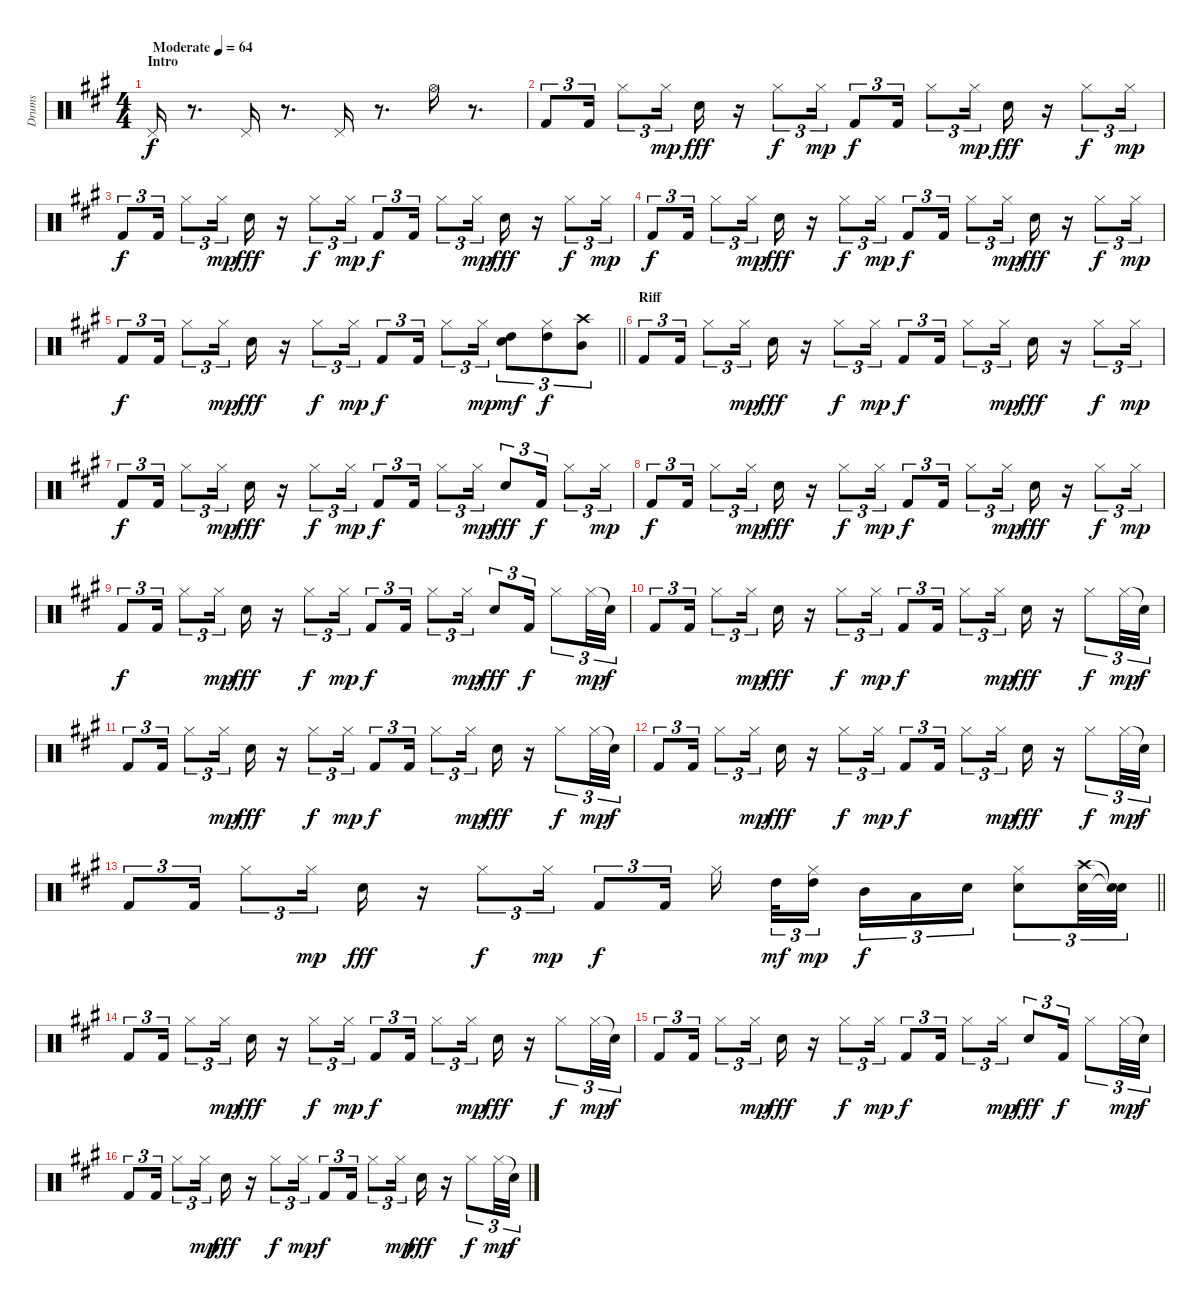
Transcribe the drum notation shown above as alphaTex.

\track ("Drums          " "Drums     ") {instrument percussion}
\staff {score}
\articulation defaults
\ts (4 4)
\section ("" "Intro")
\tempo (64 "Moderate")
\clef neutral
\ks f#minor "Pedal Hi-Hat (hit)".16{dy f}
r.8{d} "Pedal Hi-Hat (hit)".16 r.8{d} "Pedal Hi-Hat (hit)".16 r.8{d} "Hi-Hat (open)".16 r.8{d} |
"Kick (hit) 2".8{tu (3 2)} "Kick (hit) 2".16{tu (3 2)} "Hi-Hat (closed)".8{tu (3 2)} "Hi-Hat (closed)".16{tu (3 2) dy mp} "Snare (hit) 2".16{dy fff} r.16 "Hi-Hat (closed)".8{tu (3 2) dy f} "Hi-Hat (closed)".16{tu (3 2) dy mp} "Kick (hit) 2".8{tu (3 2) dy f} "Kick (hit) 2".16{tu (3 2)} "Hi-Hat (closed)".8{tu (3 2)} "Hi-Hat (closed)".16{tu (3 2) dy mp} "Snare (hit) 2".16{dy fff} r.16 "Hi-Hat (closed)".8{tu (3 2) dy f} "Hi-Hat (closed)".16{tu (3 2) dy mp} |
"Kick (hit) 2".8{tu (3 2) dy f} "Kick (hit) 2".16{tu (3 2)} "Hi-Hat (closed)".8{tu (3 2)} "Hi-Hat (closed)".16{tu (3 2) dy mp} "Snare (hit) 2".16{dy fff} r.16 "Hi-Hat (closed)".8{tu (3 2) dy f} "Hi-Hat (closed)".16{tu (3 2) dy mp} "Kick (hit) 2".8{tu (3 2) dy f} "Kick (hit) 2".16{tu (3 2)} "Hi-Hat (closed)".8{tu (3 2)} "Hi-Hat (closed)".16{tu (3 2) dy mp} "Snare (hit) 2".16{dy fff} r.16 "Hi-Hat (closed)".8{tu (3 2) dy f} "Hi-Hat (closed)".16{tu (3 2) dy mp} |
"Kick (hit) 2".8{tu (3 2) dy f} "Kick (hit) 2".16{tu (3 2)} "Hi-Hat (closed)".8{tu (3 2)} "Hi-Hat (closed)".16{tu (3 2) dy mp} "Snare (hit) 2".16{dy fff} r.16 "Hi-Hat (closed)".8{tu (3 2) dy f} "Hi-Hat (closed)".16{tu (3 2) dy mp} "Kick (hit) 2".8{tu (3 2) dy f} "Kick (hit) 2".16{tu (3 2)} "Hi-Hat (closed)".8{tu (3 2)} "Hi-Hat (closed)".16{tu (3 2) dy mp} "Snare (hit) 2".16{dy fff} r.16 "Hi-Hat (closed)".8{tu (3 2) dy f} "Hi-Hat (closed)".16{tu (3 2) dy mp} |
\barLineRight lightlight "Kick (hit) 2".8{tu (3 2) dy f} "Kick (hit) 2".16{tu (3 2)} "Hi-Hat (closed)".8{tu (3 2)} "Hi-Hat (closed)".16{tu (3 2) dy mp} "Snare (hit) 2".16{dy fff}
r.16 "Hi-Hat (closed)".8{tu (3 2) dy f} "Hi-Hat (closed)".16{tu (3 2) dy mp} "Kick (hit) 2".8{tu (3 2) dy f} "Kick (hit) 2".16{tu (3 2)} "Hi-Hat (closed)".8{tu (3 2)} "Hi-Hat (closed)".16{tu (3 2) dy mp} ("Snare (hit) 2" "High Tom (hit)").8{tu (3 2) dy mf} ("Hi-Hat (closed)" "High Tom (hit)").8{tu (3 2) dy f} ("Crash high (hit)" "Mid Tom (hit)").8{tu (3 2)} |
\section ("" "Riff")
"Kick (hit) 2".8{tu (3 2)} "Kick (hit) 2".16{tu (3 2)} "Hi-Hat (closed)".8{tu (3 2)} "Hi-Hat (closed)".16{tu (3 2) dy mp} "Snare (hit) 2".16{dy fff} r.16 "Hi-Hat (closed)".8{tu (3 2) dy f} "Hi-Hat (closed)".16{tu (3 2) dy mp} "Kick (hit) 2".8{tu (3 2) dy f} "Kick (hit) 2".16{tu (3 2)} "Hi-Hat (closed)".8{tu (3 2)} "Hi-Hat (closed)".16{tu (3 2) dy mp} "Snare (hit) 2".16{dy fff} r.16 "Hi-Hat (closed)".8{tu (3 2) dy f} "Hi-Hat (closed)".16{tu (3 2) dy mp} |
"Kick (hit) 2".8{tu (3 2) dy f} "Kick (hit) 2".16{tu (3 2)} "Hi-Hat (closed)".8{tu (3 2)} "Hi-Hat (closed)".16{tu (3 2) dy mp} "Snare (hit) 2".16{dy fff} r.16 "Hi-Hat (closed)".8{tu (3 2) dy f} "Hi-Hat (closed)".16{tu (3 2) dy mp} "Kick (hit) 2".8{tu (3 2) dy f} "Kick (hit) 2".16{tu (3 2)} "Hi-Hat (closed)".8{tu (3 2)} "Hi-Hat (closed)".16{tu (3 2) dy mp} "Snare (hit) 2".8{tu (3 2) dy fff} "Kick (hit) 2".16{tu (3 2) dy f} "Hi-Hat (closed)".8{tu (3 2)} "Hi-Hat (closed)".16{tu (3 2) dy mp} |
"Kick (hit) 2".8{tu (3 2) dy f} "Kick (hit) 2".16{tu (3 2)} "Hi-Hat (closed)".8{tu (3 2)} "Hi-Hat (closed)".16{tu (3 2) dy mp} "Snare (hit) 2".16{dy fff} r.16 "Hi-Hat (closed)".8{tu (3 2) dy f} "Hi-Hat (closed)".16{tu (3 2) dy mp} "Kick (hit) 2".8{tu (3 2) dy f} "Kick (hit) 2".16{tu (3 2)} "Hi-Hat (closed)".8{tu (3 2)} "Hi-Hat (closed)".16{tu (3 2) dy mp} "Snare (hit) 2".16{dy fff} r.16 "Hi-Hat (closed)".8{tu (3 2) dy f} "Hi-Hat (closed)".16{tu (3 2) dy mp} |
"Kick (hit) 2".8{tu (3 2) dy f} "Kick (hit) 2".16{tu (3 2)} "Hi-Hat (closed)".8{tu (3 2)} "Hi-Hat (closed)".16{tu (3 2) dy mp} "Snare (hit) 2".16{dy fff} r.16 "Hi-Hat (closed)".8{tu (3 2) dy f} "Hi-Hat (closed)".16{tu (3 2) dy mp} "Kick (hit) 2".8{tu (3 2) dy f} "Kick (hit) 2".16{tu (3 2)} "Hi-Hat (closed)".8{tu (3 2)} "Hi-Hat (closed)".16{tu (3 2) dy mp} "Snare (hit) 2".8{tu (3 2) dy fff} "Kick (hit) 2".16{tu (3 2) dy f} "Hi-Hat (closed)".8{tu (3 2)} "Hi-Hat (closed)".32{tu (3 2) dy mp} "Snare (hit)"{t}.32{tu (3 2) dy f} |
"Kick (hit) 2".8{tu (3 2)} "Kick (hit) 2".16{tu (3 2)} "Hi-Hat (closed)".8{tu (3 2)} "Hi-Hat (closed)".16{tu (3 2) dy mp} "Snare (hit) 2".16{dy fff} r.16 "Hi-Hat (closed)".8{tu (3 2) dy f} "Hi-Hat (closed)".16{tu (3 2) dy mp} "Kick (hit) 2".8{tu (3 2) dy f} "Kick (hit) 2".16{tu (3 2)} "Hi-Hat (closed)".8{tu (3 2)} "Hi-Hat (closed)".16{tu (3 2) dy mp} "Snare (hit) 2".16{dy fff} r.16 "Hi-Hat (closed)".8{tu (3 2) dy f} "Hi-Hat (closed)".32{tu (3 2) dy mp} "Snare (hit)"{t}.32{tu (3 2) dy f} |
"Kick (hit) 2".8{tu (3 2)} "Kick (hit) 2".16{tu (3 2)} "Hi-Hat (closed)".8{tu (3 2)} "Hi-Hat (closed)".16{tu (3 2) dy mp} "Snare (hit) 2".16{dy fff} r.16 "Hi-Hat (closed)".8{tu (3 2) dy f} "Hi-Hat (closed)".16{tu (3 2) dy mp} "Kick (hit) 2".8{tu (3 2) dy f} "Kick (hit) 2".16{tu (3 2)} "Hi-Hat (closed)".8{tu (3 2)} "Hi-Hat (closed)".16{tu (3 2) dy mp} "Snare (hit) 2".16{dy fff} r.16 "Hi-Hat (closed)".8{tu (3 2) dy f} "Hi-Hat (closed)".32{tu (3 2) dy mp} "Snare (hit)"{t}.32{tu (3 2) dy f} |
"Kick (hit) 2".8{tu (3 2)} "Kick (hit) 2".16{tu (3 2)} "Hi-Hat (closed)".8{tu (3 2)} "Hi-Hat (closed)".16{tu (3 2) dy mp} "Snare (hit) 2".16{dy fff} r.16 "Hi-Hat (closed)".8{tu (3 2) dy f} "Hi-Hat (closed)".16{tu (3 2) dy mp} "Kick (hit) 2".8{tu (3 2) dy f} "Kick (hit) 2".16{tu (3 2)} "Hi-Hat (closed)".8{tu (3 2)} "Hi-Hat (closed)".16{tu (3 2) dy mp} "Snare (hit) 2".16{dy fff} r.16 "Hi-Hat (closed)".8{tu (3 2) dy f} "Hi-Hat (closed)".32{tu (3 2) dy mp} "Snare (hit)"{t}.32{tu (3 2) dy f} |
\barLineRight lightlight "Kick (hit) 2".8{tu (3 2)} "Kick (hit) 2".16{tu (3 2)} "Hi-Hat (closed)".8{tu (3 2)} "Hi-Hat (closed)".16{tu (3 2) dy mp} "Snare (hit) 2".16{dy fff}
r.16 "Hi-Hat (closed)".8{tu (3 2) dy f} "Hi-Hat (closed)".16{tu (3 2) dy mp} "Kick (hit) 2".8{tu (3 2) dy f} "Kick (hit) 2".16{tu (3 2) beam splitsecondary} "Hi-Hat (closed)".16{beam splitsecondary} "High Tom (hit)".32{tu (3 2) dy mf} ("Hi-Hat (closed)" "High Tom (hit)").16{tu (3 2) dy mp} "Mid Tom (hit)".16{tu (3 2) dy f} "Low Tom (hit)".16{tu (3 2)} "Snare (hit) 2".16{tu (3 2)} ("Hi-Hat (closed)" "Snare (hit) 2").8{tu (3 2)} ("Snare (hit) 2" "Crash high (hit)").32{tu (3 2)} ("Snare (hit)"{t} "Snare (hit)"{t}).32{tu (3 2)} |
"Kick (hit) 2".8{tu (3 2)} "Kick (hit) 2".16{tu (3 2)} "Hi-Hat (closed)".8{tu (3 2)} "Hi-Hat (closed)".16{tu (3 2) dy mp} "Snare (hit) 2".16{dy fff} r.16 "Hi-Hat (closed)".8{tu (3 2) dy f} "Hi-Hat (closed)".16{tu (3 2) dy mp} "Kick (hit) 2".8{tu (3 2) dy f} "Kick (hit) 2".16{tu (3 2)} "Hi-Hat (closed)".8{tu (3 2)} "Hi-Hat (closed)".16{tu (3 2) dy mp} "Snare (hit) 2".16{dy fff} r.16 "Hi-Hat (closed)".8{tu (3 2) dy f} "Hi-Hat (closed)".32{tu (3 2) dy mp} "Snare (hit)"{t}.32{tu (3 2) dy f} |
"Kick (hit) 2".8{tu (3 2)} "Kick (hit) 2".16{tu (3 2)} "Hi-Hat (closed)".8{tu (3 2)} "Hi-Hat (closed)".16{tu (3 2) dy mp} "Snare (hit) 2".16{dy fff} r.16 "Hi-Hat (closed)".8{tu (3 2) dy f} "Hi-Hat (closed)".16{tu (3 2) dy mp} "Kick (hit) 2".8{tu (3 2) dy f} "Kick (hit) 2".16{tu (3 2)} "Hi-Hat (closed)".8{tu (3 2)} "Hi-Hat (closed)".16{tu (3 2) dy mp} "Snare (hit) 2".8{tu (3 2) dy fff} "Kick (hit) 2".16{tu (3 2) dy f} "Hi-Hat (closed)".8{tu (3 2)} "Hi-Hat (closed)".32{tu (3 2) dy mp} "Snare (hit)"{t}.32{tu (3 2) dy f} |
"Kick (hit) 2".8{tu (3 2)} "Kick (hit) 2".16{tu (3 2)} "Hi-Hat (closed)".8{tu (3 2)} "Hi-Hat (closed)".16{tu (3 2) dy mp} "Snare (hit) 2".16{dy fff} r.16 "Hi-Hat (closed)".8{tu (3 2) dy f} "Hi-Hat (closed)".16{tu (3 2) dy mp} "Kick (hit) 2".8{tu (3 2) dy f} "Kick (hit) 2".16{tu (3 2)} "Hi-Hat (closed)".8{tu (3 2)} "Hi-Hat (closed)".16{tu (3 2) dy mp} "Snare (hit) 2".16{dy fff} r.16 "Hi-Hat (closed)".8{tu (3 2) dy f} "Hi-Hat (closed)".32{tu (3 2) dy mp} "Snare (hit)"{t}.32{tu (3 2) dy f}
